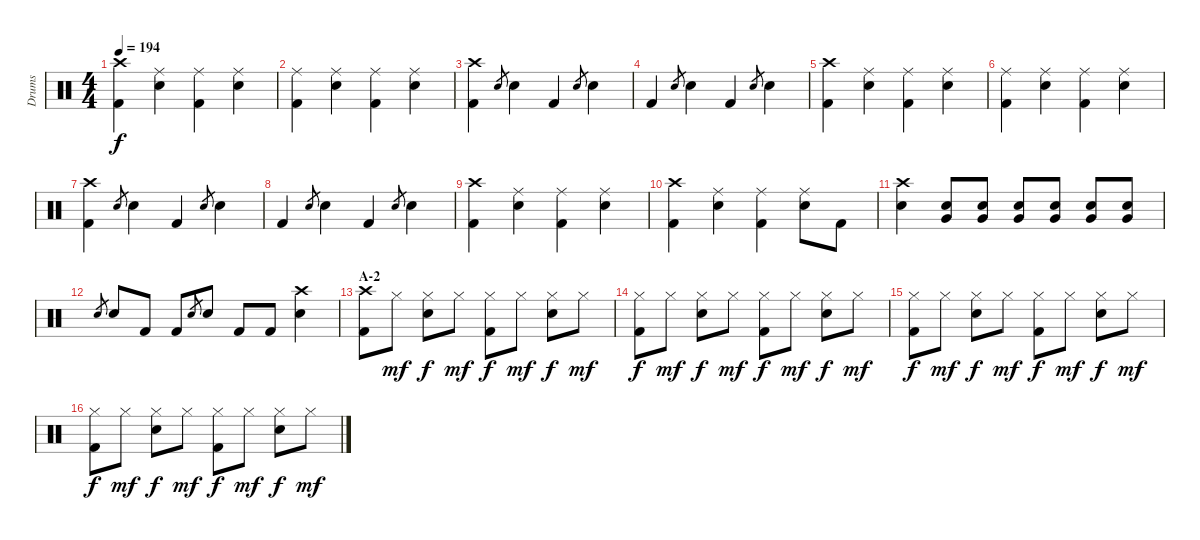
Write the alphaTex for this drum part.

\track ("Drums" "Drums") {instrument percussion}
\staff {score}
\articulation defaults
\ts (4 4)
\tempo 194
\clef neutral
\ks c
("Crash high (hit)" "Kick (hit) 2").4{dy f} ("Ride (middle)" "Electric Snare (hit)").4 ("Ride (middle)" "Kick (hit) 2").4 ("Ride (middle)" "Electric Snare (hit)").4 |
("Ride (middle)" "Kick (hit) 2").4 ("Ride (middle)" "Electric Snare (hit)").4 ("Ride (middle)" "Kick (hit) 2").4 ("Ride (middle)" "Electric Snare (hit)").4 |
("Crash high (hit)" "Kick (hit) 2").4 "Electric Snare (hit)".8{gr} "Electric Snare (hit)".4 "Kick (hit) 2".4 "Electric Snare (hit)".8{gr} "Electric Snare (hit)".4 |
"Kick (hit) 2".4 "Electric Snare (hit)".8{gr} "Electric Snare (hit)".4 "Kick (hit) 2".4 "Electric Snare (hit)".8{gr} "Electric Snare (hit)".4 |
("Crash high (hit)" "Kick (hit) 2").4 ("Ride (middle)" "Electric Snare (hit)").4 ("Ride (middle)" "Kick (hit) 2").4 ("Ride (middle)" "Electric Snare (hit)").4 |
("Ride (middle)" "Kick (hit) 2").4 ("Ride (middle)" "Electric Snare (hit)").4 ("Ride (middle)" "Kick (hit) 2").4 ("Ride (middle)" "Electric Snare (hit)").4 |
("Crash high (hit)" "Kick (hit) 2").4 "Electric Snare (hit)".8{gr} "Electric Snare (hit)".4 "Kick (hit) 2".4 "Electric Snare (hit)".8{gr} "Electric Snare (hit)".4 |
"Kick (hit) 2".4 "Electric Snare (hit)".8{gr} "Electric Snare (hit)".4 "Kick (hit) 2".4 "Electric Snare (hit)".8{gr} "Electric Snare (hit)".4 |
("Crash high (hit)" "Kick (hit) 2").4 ("Ride (middle)" "Electric Snare (hit)").4 ("Ride (middle)" "Kick (hit) 2").4 ("Ride (middle)" "Electric Snare (hit)").4 |
("Crash high (hit)" "Kick (hit) 2").4 ("Ride (middle)" "Electric Snare (hit)").4 ("Ride (middle)" "Kick (hit) 2").4 ("Ride (middle)" "Electric Snare (hit)").8 "Kick (hit) 2".8 |
("Crash high (hit)" "Electric Snare (hit)").4 ("Electric Snare (hit)" "Very Low Tom (hit)").8 ("Electric Snare (hit)" "Very Low Tom (hit)").8 ("Electric Snare (hit)" "Very Low Tom (hit)").8 ("Electric Snare (hit)" "Very Low Tom (hit)").8 ("Electric Snare (hit)" "Very Low Tom (hit)").8 ("Electric Snare (hit)" "Very Low Tom (hit)").8 |
"Electric Snare (hit)".8{gr} "Electric Snare (hit)".8 "Kick (hit) 2".8 "Kick (hit) 2".8 "Electric Snare (hit)".8{gr} "Electric Snare (hit)".8 "Kick (hit) 2".8 "Kick (hit) 2".8 ("Crash high (hit)" "Electric Snare (hit)").4 |
\section ("" "A-2")
("Crash high (hit)" "Kick (hit) 2").8 "Hi-Hat (closed)".8{dy mf} ("Hi-Hat (closed)" "Electric Snare (hit)").8{dy f} "Hi-Hat (closed)".8{dy mf} ("Hi-Hat (closed)" "Kick (hit) 2").8{dy f} "Hi-Hat (closed)".8{dy mf} ("Hi-Hat (closed)" "Electric Snare (hit)").8{dy f} "Hi-Hat (closed)".8{dy mf} |
("Hi-Hat (closed)" "Kick (hit) 2").8{dy f} "Hi-Hat (closed)".8{dy mf} ("Hi-Hat (closed)" "Electric Snare (hit)").8{dy f} "Hi-Hat (closed)".8{dy mf} ("Hi-Hat (closed)" "Kick (hit) 2").8{dy f} "Hi-Hat (closed)".8{dy mf} ("Hi-Hat (closed)" "Electric Snare (hit)").8{dy f} "Hi-Hat (closed)".8{dy mf} |
("Hi-Hat (closed)" "Kick (hit) 2").8{dy f} "Hi-Hat (closed)".8{dy mf} ("Hi-Hat (closed)" "Electric Snare (hit)").8{dy f} "Hi-Hat (closed)".8{dy mf} ("Hi-Hat (closed)" "Kick (hit) 2").8{dy f} "Hi-Hat (closed)".8{dy mf} ("Hi-Hat (closed)" "Electric Snare (hit)").8{dy f} "Hi-Hat (closed)".8{dy mf} |
("Hi-Hat (closed)" "Kick (hit) 2").8{dy f} "Hi-Hat (closed)".8{dy mf} ("Hi-Hat (closed)" "Electric Snare (hit)").8{dy f} "Hi-Hat (closed)".8{dy mf} ("Hi-Hat (closed)" "Kick (hit) 2").8{dy f} "Hi-Hat (closed)".8{dy mf} ("Hi-Hat (closed)" "Electric Snare (hit)").8{dy f} "Hi-Hat (closed)".8{dy mf}
